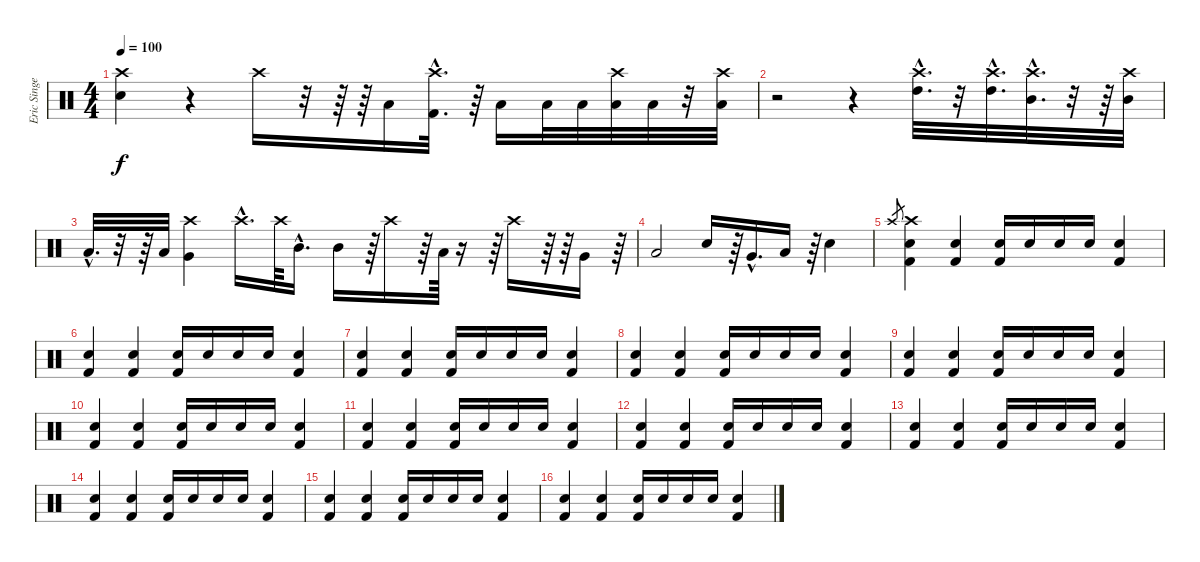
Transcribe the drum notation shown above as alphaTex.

\track ("Eric Singer" "Eric Singe") {instrument percussion}
\staff {score}
\articulation defaults
\ts (4 4)
\tempo 100
\clef neutral
\ks c
("Electric Snare (hit)" "Crash high (hit)").4{dy f} r.4 "Crash high (hit)".16 r.32 r.64 r.64 "Low Tom (hit)".16 ("Kick (hit) 2"{hac} "Crash high (hit)"{hac}).32{d} r.64 "Low Tom (hit)".16 "Low Tom (hit)".32 "Low Tom (hit)".32 ("Low Tom (hit)" "Crash high (hit)").32 "Low Tom (hit)".32 r.32 ("Low Tom (hit)" "Crash high (hit)").32 |
r.2 r.4 ("High Tom (hit)"{hac} "Crash high (hit)"{hac}).32{d} r.32 ("High Tom (hit)"{hac} "Crash high (hit)"{hac}).32{d} ("Mid Tom (hit)"{hac} "Crash high (hit)"{hac}).32{d} r.32 r.64 ("Mid Tom (hit)" "Crash high (hit)").32 |
"Low Tom (hit)"{hac}.32{d} r.32 r.64 "Low Tom (hit)".32 ("Very Low Tom (hit)" "Crash high (hit)").4 "Crash high (hit)"{hac}.16{d} "Crash high (hit)".64 "Mid Tom (hit)"{hac}.16{d} "Mid Tom (hit)".16 r.64 "Crash high (hit)".16 r.64 "Low Tom (hit)".64 r.16 r.64 "Crash high (hit)".16 r.64 r.64 "Very Low Tom (hit)".16 r.64 |
"Low Floor Tom (hit)".2 "Electric Snare (hit)".16 r.64 "Very Low Tom (hit)"{hac}.16{d} "Low Floor Tom (hit)".16 r.64 "Electric Snare (hit)".4 |
"Crash high (hit)".8{gr} ("Crash high (hit)" "Snare (hit) 2" "Kick (hit) 2").4 ("Snare (hit) 2" "Kick (hit) 2").4 ("Snare (hit) 2" "Kick (hit) 2").16 "Snare (hit) 2".16 "Snare (hit) 2".16 "Snare (hit) 2".16 ("Snare (hit) 2" "Kick (hit) 2").4 |
("Snare (hit) 2" "Kick (hit) 2").4 ("Snare (hit) 2" "Kick (hit) 2").4 ("Snare (hit) 2" "Kick (hit) 2").16 "Snare (hit) 2".16 "Snare (hit) 2".16 "Snare (hit) 2".16 ("Snare (hit) 2" "Kick (hit) 2").4 |
("Snare (hit) 2" "Kick (hit) 2").4 ("Snare (hit) 2" "Kick (hit) 2").4 ("Snare (hit) 2" "Kick (hit) 2").16 "Snare (hit) 2".16 "Snare (hit) 2".16 "Snare (hit) 2".16 ("Snare (hit) 2" "Kick (hit) 2").4 |
("Snare (hit) 2" "Kick (hit) 2").4 ("Snare (hit) 2" "Kick (hit) 2").4 ("Snare (hit) 2" "Kick (hit) 2").16 "Snare (hit) 2".16 "Snare (hit) 2".16 "Snare (hit) 2".16 ("Snare (hit) 2" "Kick (hit) 2").4 |
("Snare (hit) 2" "Kick (hit) 2").4 ("Snare (hit) 2" "Kick (hit) 2").4 ("Snare (hit) 2" "Kick (hit) 2").16 "Snare (hit) 2".16 "Snare (hit) 2".16 "Snare (hit) 2".16 ("Snare (hit) 2" "Kick (hit) 2").4 |
("Snare (hit) 2" "Kick (hit) 2").4 ("Snare (hit) 2" "Kick (hit) 2").4 ("Snare (hit) 2" "Kick (hit) 2").16 "Snare (hit) 2".16 "Snare (hit) 2".16 "Snare (hit) 2".16 ("Snare (hit) 2" "Kick (hit) 2").4 |
("Snare (hit) 2" "Kick (hit) 2").4 ("Snare (hit) 2" "Kick (hit) 2").4 ("Snare (hit) 2" "Kick (hit) 2").16 "Snare (hit) 2".16 "Snare (hit) 2".16 "Snare (hit) 2".16 ("Snare (hit) 2" "Kick (hit) 2").4 |
("Snare (hit) 2" "Kick (hit) 2").4 ("Snare (hit) 2" "Kick (hit) 2").4 ("Snare (hit) 2" "Kick (hit) 2").16 "Snare (hit) 2".16 "Snare (hit) 2".16 "Snare (hit) 2".16 ("Snare (hit) 2" "Kick (hit) 2").4 |
("Snare (hit) 2" "Kick (hit) 2").4 ("Snare (hit) 2" "Kick (hit) 2").4 ("Snare (hit) 2" "Kick (hit) 2").16 "Snare (hit) 2".16 "Snare (hit) 2".16 "Snare (hit) 2".16 ("Snare (hit) 2" "Kick (hit) 2").4 |
("Snare (hit) 2" "Kick (hit) 2").4 ("Snare (hit) 2" "Kick (hit) 2").4 ("Snare (hit) 2" "Kick (hit) 2").16 "Snare (hit) 2".16 "Snare (hit) 2".16 "Snare (hit) 2".16 ("Snare (hit) 2" "Kick (hit) 2").4 |
("Snare (hit) 2" "Kick (hit) 2").4 ("Snare (hit) 2" "Kick (hit) 2").4 ("Snare (hit) 2" "Kick (hit) 2").16 "Snare (hit) 2".16 "Snare (hit) 2".16 "Snare (hit) 2".16 ("Snare (hit) 2" "Kick (hit) 2").4 |
("Snare (hit) 2" "Kick (hit) 2").4 ("Snare (hit) 2" "Kick (hit) 2").4 ("Snare (hit) 2" "Kick (hit) 2").16 "Snare (hit) 2".16 "Snare (hit) 2".16 "Snare (hit) 2".16 ("Snare (hit) 2" "Kick (hit) 2").4
